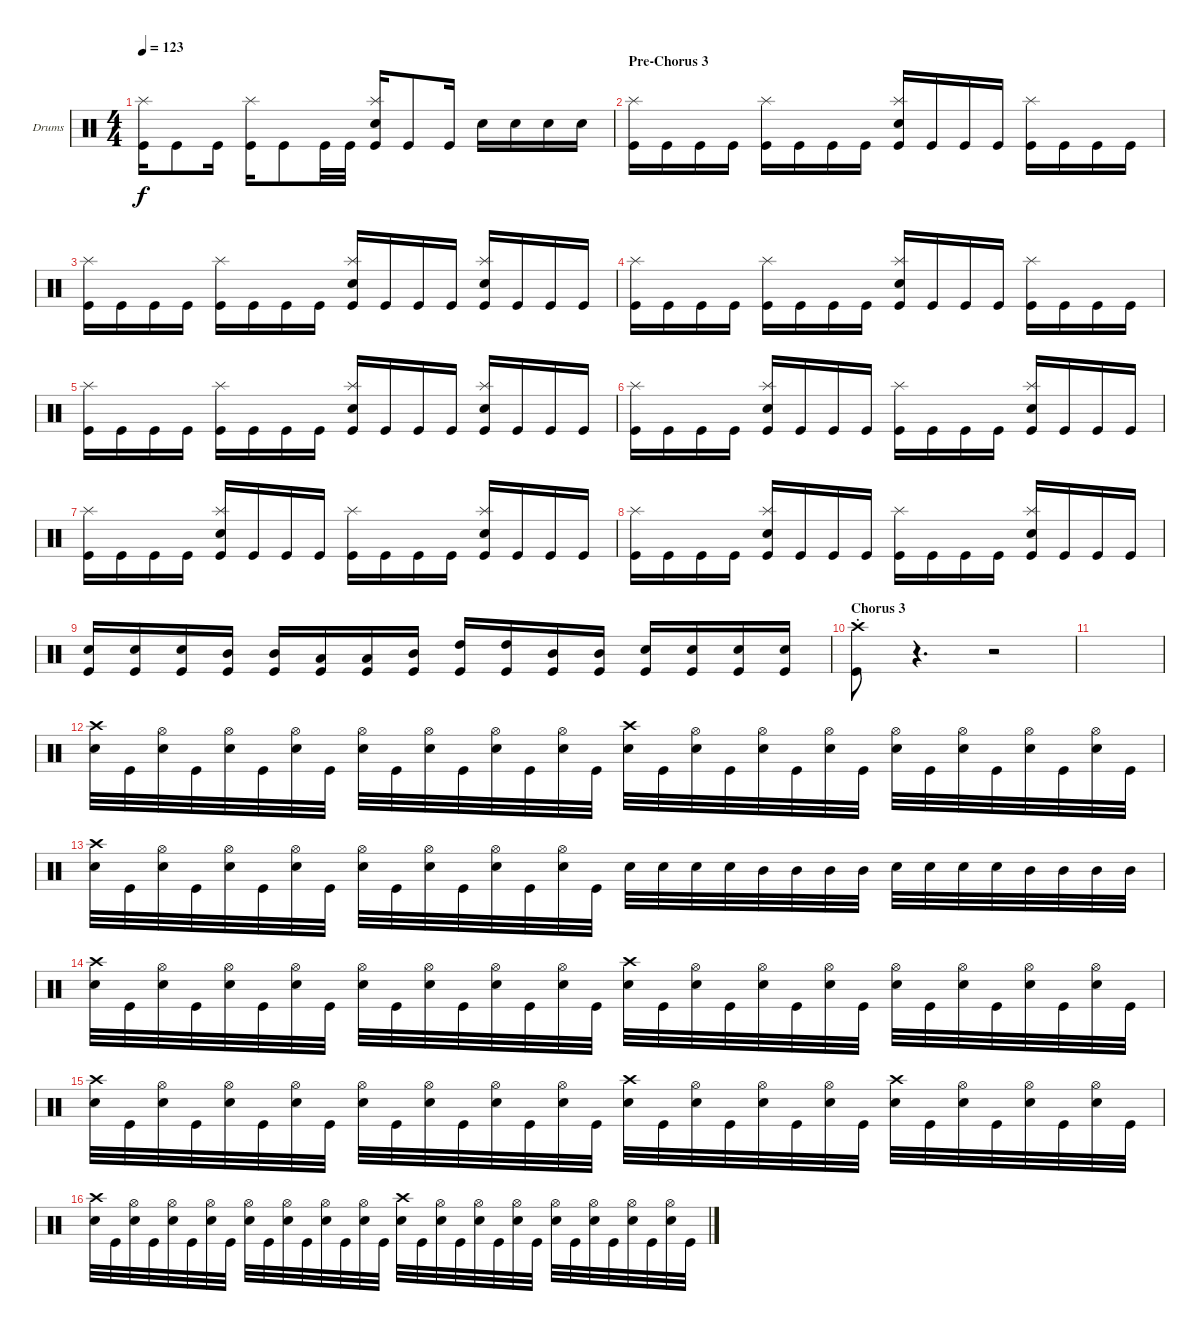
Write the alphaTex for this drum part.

\defaultSystemsLayout 4
\bracketExtendMode groupsimilarinstruments
\firstSystemTrackNameOrientation horizontal
\otherSystemsTrackNameOrientation horizontal
\track ("Drumkit" "Drums") {instrument percussion}
\staff {score}
\articulation defaults
\ts (4 4)
\tempo 123
\clef neutral
\scale
0.333333
\ks c
("Kick (hit)" "Splash (hit)").16{dy f} "Kick (hit)".8 "Kick (hit)".16 ("Kick (hit)" "Splash (hit)").16 "Kick (hit)".8 "Kick (hit)".32 "Kick (hit)".32 ("Kick (hit)" "Snare (hit) 2" "Splash (hit)").16 "Kick (hit)".8 "Kick (hit)".16 "Snare (hit) 2".16 "Snare (hit) 2".16 "Snare (hit) 2".16 "Snare (hit) 2".16 |
\section ("" "Pre-Chorus 3")
\scale
0.333333 ("Kick (hit)" "Splash (hit)").16 "Kick (hit)".16 "Kick (hit)".16 "Kick (hit)".16 ("Kick (hit)" "Splash (hit)").16 "Kick (hit)".16 "Kick (hit)".16 "Kick (hit)".16 ("Kick (hit)" "Splash (hit)" "Snare (hit) 2").16 "Kick (hit)".16 "Kick (hit)".16 "Kick (hit)".16 ("Kick (hit)" "Splash (hit)").16 "Kick (hit)".16 "Kick (hit)".16 "Kick (hit)".16 |
\scale
0.333333 ("Kick (hit)" "Splash (hit)").16 "Kick (hit)".16 "Kick (hit)".16 "Kick (hit)".16 ("Kick (hit)" "Splash (hit)").16 "Kick (hit)".16 "Kick (hit)".16 "Kick (hit)".16 ("Kick (hit)" "Splash (hit)" "Snare (hit) 2").16 "Kick (hit)".16 "Kick (hit)".16 "Kick (hit)".16 ("Kick (hit)" "Splash (hit)" "Snare (hit) 2").16 "Kick (hit)".16 "Kick (hit)".16 "Kick (hit)".16 |
\scale
0.333333 ("Kick (hit)" "Splash (hit)").16 "Kick (hit)".16 "Kick (hit)".16 "Kick (hit)".16 ("Kick (hit)" "Splash (hit)").16 "Kick (hit)".16 "Kick (hit)".16 "Kick (hit)".16 ("Kick (hit)" "Splash (hit)" "Snare (hit) 2").16 "Kick (hit)".16 "Kick (hit)".16 "Kick (hit)".16 ("Kick (hit)" "Splash (hit)").16 "Kick (hit)".16 "Kick (hit)".16 "Kick (hit)".16 |
\scale
0.333333 ("Kick (hit)" "Splash (hit)").16 "Kick (hit)".16 "Kick (hit)".16 "Kick (hit)".16 ("Kick (hit)" "Splash (hit)").16 "Kick (hit)".16 "Kick (hit)".16 "Kick (hit)".16 ("Kick (hit)" "Splash (hit)" "Snare (hit) 2").16 "Kick (hit)".16 "Kick (hit)".16 "Kick (hit)".16 ("Kick (hit)" "Splash (hit)" "Snare (hit) 2").16 "Kick (hit)".16 "Kick (hit)".16 "Kick (hit)".16 |
\scale
0.333333 ("Kick (hit)" "Splash (hit)").16 "Kick (hit)".16 "Kick (hit)".16 "Kick (hit)".16 ("Kick (hit)" "Splash (hit)" "Snare (hit) 2").16 "Kick (hit)".16 "Kick (hit)".16 "Kick (hit)".16 ("Kick (hit)" "Splash (hit)").16 "Kick (hit)".16 "Kick (hit)".16 "Kick (hit)".16 ("Kick (hit)" "Splash (hit)" "Snare (hit) 2").16 "Kick (hit)".16 "Kick (hit)".16 "Kick (hit)".16 |
\scale
0.333333 ("Kick (hit)" "Splash (hit)").16 "Kick (hit)".16 "Kick (hit)".16 "Kick (hit)".16 ("Kick (hit)" "Splash (hit)" "Snare (hit) 2").16 "Kick (hit)".16 "Kick (hit)".16 "Kick (hit)".16 ("Kick (hit)" "Splash (hit)").16 "Kick (hit)".16 "Kick (hit)".16 "Kick (hit)".16 ("Kick (hit)" "Splash (hit)" "Snare (hit) 2").16 "Kick (hit)".16 "Kick (hit)".16 "Kick (hit)".16 |
\scale
0.333333 ("Kick (hit)" "Splash (hit)").16 "Kick (hit)".16 "Kick (hit)".16 "Kick (hit)".16 ("Kick (hit)" "Splash (hit)" "Snare (hit) 2").16 "Kick (hit)".16 "Kick (hit)".16 "Kick (hit)".16 ("Kick (hit)" "Splash (hit)").16 "Kick (hit)".16 "Kick (hit)".16 "Kick (hit)".16 ("Kick (hit)" "Splash (hit)" "Snare (hit) 2").16 "Kick (hit)".16 "Kick (hit)".16 "Kick (hit)".16 |
\scale
0.333333 ("Snare (hit) 2" "Kick (hit)").16 ("Snare (hit) 2" "Kick (hit)").16 ("Snare (hit) 2" "Kick (hit)").16 ("Kick (hit)" "Mid Tom (hit)").16 ("Mid Tom (hit)" "Kick (hit)").16 ("Low Tom (hit)" "Kick (hit)").16 ("Low Tom (hit)" "Kick (hit)").16 ("Mid Tom (hit)" "Kick (hit)").16 ("Kick (hit)" "High Tom (hit)").16 ("Kick (hit)" "High Tom (hit)").16 ("Kick (hit)" "Mid Tom (hit)").16 ("Kick (hit)" "Mid Tom (hit)").16 ("Kick (hit)" "Snare (hit) 2").16 ("Kick (hit)" "Snare (hit) 2").16 ("Kick (hit)" "Snare (hit) 2").16 ("Kick (hit)" "Snare (hit) 2").16 |
\section ("" "Chorus 3")
\scale
0.333333 ("Kick (hit)" "Crash high (hit)"{st}).8 r.4{d} r.2 |
\scale
0.333333 |
\scale
0.333333 ("Snare (hit) 2" "Crash high (hit)").32 "Kick (hit)".32 ("Snare (hit) 2" "Hi-Hat (open)").32 "Kick (hit)".32 ("Snare (hit) 2" "Hi-Hat (open)").32 "Kick (hit)".32 ("Snare (hit) 2" "Hi-Hat (open)").32 "Kick (hit)".32 ("Snare (hit) 2" "Hi-Hat (open)").32 "Kick (hit)".32 ("Snare (hit) 2" "Hi-Hat (open)").32 "Kick (hit)".32 ("Snare (hit) 2" "Hi-Hat (open)").32 "Kick (hit)".32 ("Snare (hit) 2" "Hi-Hat (open)").32 "Kick (hit)".32 ("Snare (hit) 2" "Crash high (hit)").32 "Kick (hit)".32 ("Snare (hit) 2" "Hi-Hat (open)").32 "Kick (hit)".32 ("Snare (hit) 2" "Hi-Hat (open)").32 "Kick (hit)".32 ("Snare (hit) 2" "Hi-Hat (open)").32 "Kick (hit)".32 ("Snare (hit) 2" "Hi-Hat (open)").32 "Kick (hit)".32 ("Snare (hit) 2" "Hi-Hat (open)").32 "Kick (hit)".32 ("Snare (hit) 2" "Hi-Hat (open)").32 "Kick (hit)".32 ("Snare (hit) 2" "Hi-Hat (open)").32 "Kick (hit)".32 |
\scale
0.333333 ("Snare (hit) 2" "Crash high (hit)").32 "Kick (hit)".32 ("Snare (hit) 2" "Hi-Hat (open)").32 "Kick (hit)".32 ("Snare (hit) 2" "Hi-Hat (open)").32 "Kick (hit)".32 ("Snare (hit) 2" "Hi-Hat (open)").32 "Kick (hit)".32 ("Snare (hit) 2" "Hi-Hat (open)").32 "Kick (hit)".32 ("Snare (hit) 2" "Hi-Hat (open)").32 "Kick (hit)".32 ("Snare (hit) 2" "Hi-Hat (open)").32 "Kick (hit)".32 ("Snare (hit) 2" "Hi-Hat (open)").32 "Kick (hit)".32 "Snare (hit) 2".32 "Snare (hit) 2".32 "Snare (hit) 2".32 "Snare (hit) 2".32 "Mid Tom (hit)".32 "Mid Tom (hit)".32 "Mid Tom (hit)".32 "Mid Tom (hit)".32 "Snare (hit) 2".32 "Snare (hit) 2".32 "Snare (hit) 2".32 "Snare (hit) 2".32 "Mid Tom (hit)".32 "Mid Tom (hit)".32 "Mid Tom (hit)".32 "Mid Tom (hit)".32 |
\scale
0.333333 ("Snare (hit) 2" "Crash high (hit)").32 "Kick (hit)".32 ("Snare (hit) 2" "Hi-Hat (open)").32 "Kick (hit)".32 ("Snare (hit) 2" "Hi-Hat (open)").32 "Kick (hit)".32 ("Snare (hit) 2" "Hi-Hat (open)").32 "Kick (hit)".32 ("Snare (hit) 2" "Hi-Hat (open)").32 "Kick (hit)".32 ("Snare (hit) 2" "Hi-Hat (open)").32 "Kick (hit)".32 ("Snare (hit) 2" "Hi-Hat (open)").32 "Kick (hit)".32 ("Snare (hit) 2" "Hi-Hat (open)").32 "Kick (hit)".32 ("Snare (hit) 2" "Crash high (hit)").32 "Kick (hit)".32 ("Snare (hit) 2" "Hi-Hat (open)").32 "Kick (hit)".32 ("Snare (hit) 2" "Hi-Hat (open)").32 "Kick (hit)".32 ("Snare (hit) 2" "Hi-Hat (open)").32 "Kick (hit)".32 ("Snare (hit) 2" "Hi-Hat (open)").32 "Kick (hit)".32 ("Snare (hit) 2" "Hi-Hat (open)").32 "Kick (hit)".32 ("Snare (hit) 2" "Hi-Hat (open)").32 "Kick (hit)".32 ("Snare (hit) 2" "Hi-Hat (open)").32 "Kick (hit)".32 |
\scale
0.333333 ("Snare (hit) 2" "Crash high (hit)").32 "Kick (hit)".32 ("Snare (hit) 2" "Hi-Hat (open)").32 "Kick (hit)".32 ("Snare (hit) 2" "Hi-Hat (open)").32 "Kick (hit)".32 ("Snare (hit) 2" "Hi-Hat (open)").32 "Kick (hit)".32 ("Snare (hit) 2" "Hi-Hat (open)").32 "Kick (hit)".32 ("Snare (hit) 2" "Hi-Hat (open)").32 "Kick (hit)".32 ("Snare (hit) 2" "Hi-Hat (open)").32 "Kick (hit)".32 ("Snare (hit) 2" "Hi-Hat (open)").32 "Kick (hit)".32 ("Snare (hit) 2" "Crash high (hit)").32 "Kick (hit)".32 ("Snare (hit) 2" "Hi-Hat (open)").32 "Kick (hit)".32 ("Snare (hit) 2" "Hi-Hat (open)").32 "Kick (hit)".32 ("Snare (hit) 2" "Hi-Hat (open)").32 "Kick (hit)".32 ("Snare (hit) 2" "Crash high (hit)").32 "Kick (hit)".32 ("Snare (hit) 2" "Hi-Hat (open)").32 "Kick (hit)".32 ("Snare (hit) 2" "Hi-Hat (open)").32 "Kick (hit)".32 ("Snare (hit) 2" "Hi-Hat (open)").32 "Kick (hit)".32 |
\scale
0.333333 ("Snare (hit) 2" "Crash high (hit)").32 "Kick (hit)".32 ("Snare (hit) 2" "Hi-Hat (open)").32 "Kick (hit)".32 ("Snare (hit) 2" "Hi-Hat (open)").32 "Kick (hit)".32 ("Snare (hit) 2" "Hi-Hat (open)").32 "Kick (hit)".32 ("Snare (hit) 2" "Hi-Hat (open)").32 "Kick (hit)".32 ("Snare (hit) 2" "Hi-Hat (open)").32 "Kick (hit)".32 ("Snare (hit) 2" "Hi-Hat (open)").32 "Kick (hit)".32 ("Snare (hit) 2" "Hi-Hat (open)").32 "Kick (hit)".32 ("Snare (hit) 2" "Crash high (hit)").32 "Kick (hit)".32 ("Snare (hit) 2" "Hi-Hat (open)").32 "Kick (hit)".32 ("Snare (hit) 2" "Hi-Hat (open)").32 "Kick (hit)".32 ("Snare (hit) 2" "Hi-Hat (open)").32 "Kick (hit)".32 ("Snare (hit) 2" "Hi-Hat (open)").32 "Kick (hit)".32 ("Snare (hit) 2" "Hi-Hat (open)").32 "Kick (hit)".32 ("Snare (hit) 2" "Hi-Hat (open)").32 "Kick (hit)".32 ("Snare (hit) 2" "Hi-Hat (open)").32 "Kick (hit)".32
